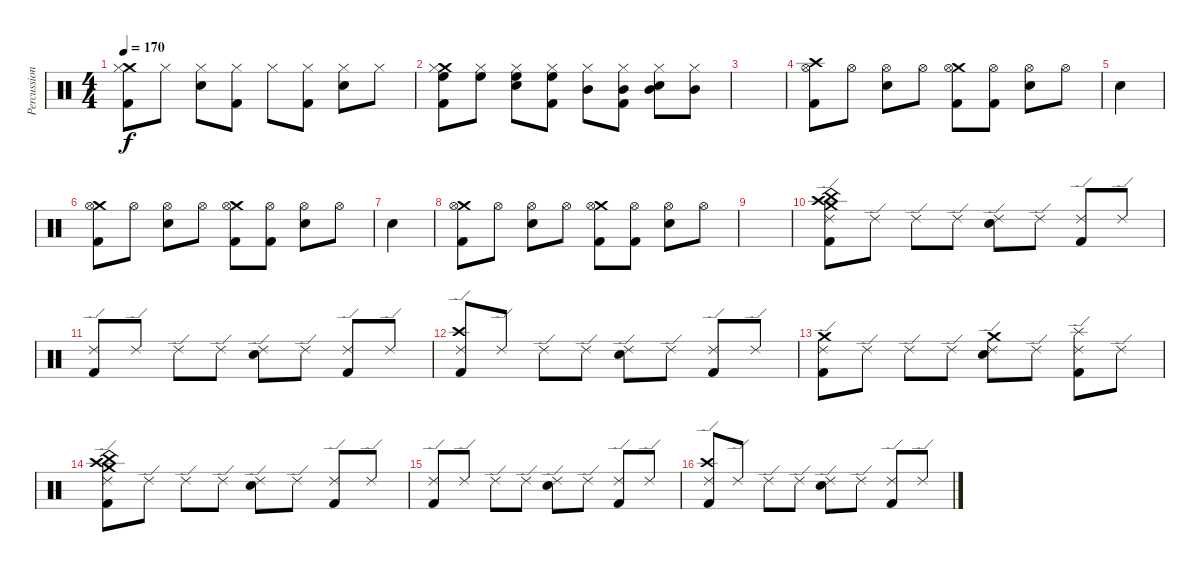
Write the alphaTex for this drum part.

\track ("Percussion" "Percussion") {instrument percussion}
\staff {score}
\articulation defaults
\ts (4 4)
\tempo 170
\clef neutral
\ks c
("Crash medium (hit)" "Kick (hit) 2" "Hi-Hat (closed)").8{dy f} "Hi-Hat (closed)".8 ("Snare (hit) 2" "Hi-Hat (closed)").8 ("Kick (hit) 2" "Hi-Hat (closed)").8 "Hi-Hat (closed)".8 ("Kick (hit) 2" "Hi-Hat (closed)").8 ("Snare (hit) 2" "Hi-Hat (closed)").8 "Hi-Hat (closed)".8 |
("Crash medium (hit)" "High Floor Tom (hit)" "Kick (hit) 2" "Hi-Hat (closed)").8 ("High Floor Tom (hit)" "Hi-Hat (closed)").8 ("High Floor Tom (hit)" "Snare (hit) 2" "Hi-Hat (closed)").8 ("High Floor Tom (hit)" "Kick (hit) 2" "Hi-Hat (closed)").8 ("Mid Tom (hit)" "Hi-Hat (closed)").8 ("Mid Tom (hit)" "Kick (hit) 2" "Hi-Hat (closed)").8 ("Mid Tom (hit)" "Snare (hit) 2" "Hi-Hat (closed)").8 ("Mid Tom (hit)" "Hi-Hat (closed)").8 |
|
("Crash high (hit)" "Kick (hit) 2" "Hi-Hat (open)").8 "Hi-Hat (open)".8 ("Snare (hit) 2" "Hi-Hat (open)").8 "Hi-Hat (open)".8 ("Crash medium (hit)" "Kick (hit) 2" "Hi-Hat (open)").8 ("Kick (hit) 2" "Hi-Hat (open)").8 ("Snare (hit) 2" "Hi-Hat (open)").8 "Hi-Hat (open)".8 |
"Snare (hit) 2".4 |
("Crash medium (hit)" "Kick (hit) 2" "Hi-Hat (open)").8 "Hi-Hat (open)".8 ("Snare (hit) 2" "Hi-Hat (open)").8 "Hi-Hat (open)".8 ("Crash medium (hit)" "Kick (hit) 2" "Hi-Hat (open)").8 ("Kick (hit) 2" "Hi-Hat (open)").8 ("Snare (hit) 2" "Hi-Hat (open)").8 "Hi-Hat (open)".8 |
"Snare (hit) 2".4 |
("Crash medium (hit)" "Kick (hit) 2" "Hi-Hat (open)").8 "Hi-Hat (open)".8 ("Snare (hit) 2" "Hi-Hat (open)").8 "Hi-Hat (open)".8 ("Crash medium (hit)" "Kick (hit) 2" "Hi-Hat (open)").8 ("Kick (hit) 2" "Hi-Hat (open)").8 ("Snare (hit) 2" "Hi-Hat (open)").8 "Hi-Hat (open)".8 |
|
("China (hit)" "Crash medium (hit)" "Kick (hit) 2" "Crash high (hit)" "Ride (edge) 2").8 "Ride (edge) 2".8 "Ride (edge) 2".8 "Ride (edge) 2".8 ("Snare (hit) 2" "Ride (edge) 2").8 "Ride (edge) 2".8 ("Kick (hit) 2" "Ride (edge) 2").8 "Ride (edge) 2".8 |
("Kick (hit) 2" "Ride (edge) 2").8 "Ride (edge) 2".8 "Ride (edge) 2".8 "Ride (edge) 2".8 ("Snare (hit) 2" "Ride (edge) 2").8 "Ride (edge) 2".8 ("Kick (hit) 2" "Ride (edge) 2").8 "Ride (edge) 2".8 |
("Kick (hit) 2" "Crash high (hit)" "Ride (edge) 2").8 "Ride (edge) 2".8 "Ride (edge) 2".8 "Ride (edge) 2".8 ("Snare (hit) 2" "Ride (edge) 2").8 "Ride (edge) 2".8 ("Kick (hit) 2" "Ride (edge) 2").8 "Ride (edge) 2".8 |
("Crash medium (hit)" "Kick (hit) 2" "Ride (edge) 2").8 "Ride (edge) 2".8 "Ride (edge) 2".8 "Ride (edge) 2".8 ("Crash medium (hit)" "Snare (hit) 2" "Ride (edge) 2").8 "Ride (edge) 2".8 ("Splash (hit)" "Kick (hit) 2" "Ride (edge) 2").8 "Ride (edge) 2".8 |
("China (hit)" "Crash medium (hit)" "Kick (hit) 2" "Crash high (hit)" "Ride (edge) 2").8 "Ride (edge) 2".8 "Ride (edge) 2".8 "Ride (edge) 2".8 ("Snare (hit) 2" "Ride (edge) 2").8 "Ride (edge) 2".8 ("Kick (hit) 2" "Ride (edge) 2").8 "Ride (edge) 2".8 |
("Kick (hit) 2" "Ride (edge) 2").8 "Ride (edge) 2".8 "Ride (edge) 2".8 "Ride (edge) 2".8 ("Snare (hit) 2" "Ride (edge) 2").8 "Ride (edge) 2".8 ("Kick (hit) 2" "Ride (edge) 2").8 "Ride (edge) 2".8 |
("Kick (hit) 2" "Crash high (hit)" "Ride (edge) 2").8 "Ride (edge) 2".8 "Ride (edge) 2".8 "Ride (edge) 2".8 ("Snare (hit) 2" "Ride (edge) 2").8 "Ride (edge) 2".8 ("Kick (hit) 2" "Ride (edge) 2").8 "Ride (edge) 2".8
